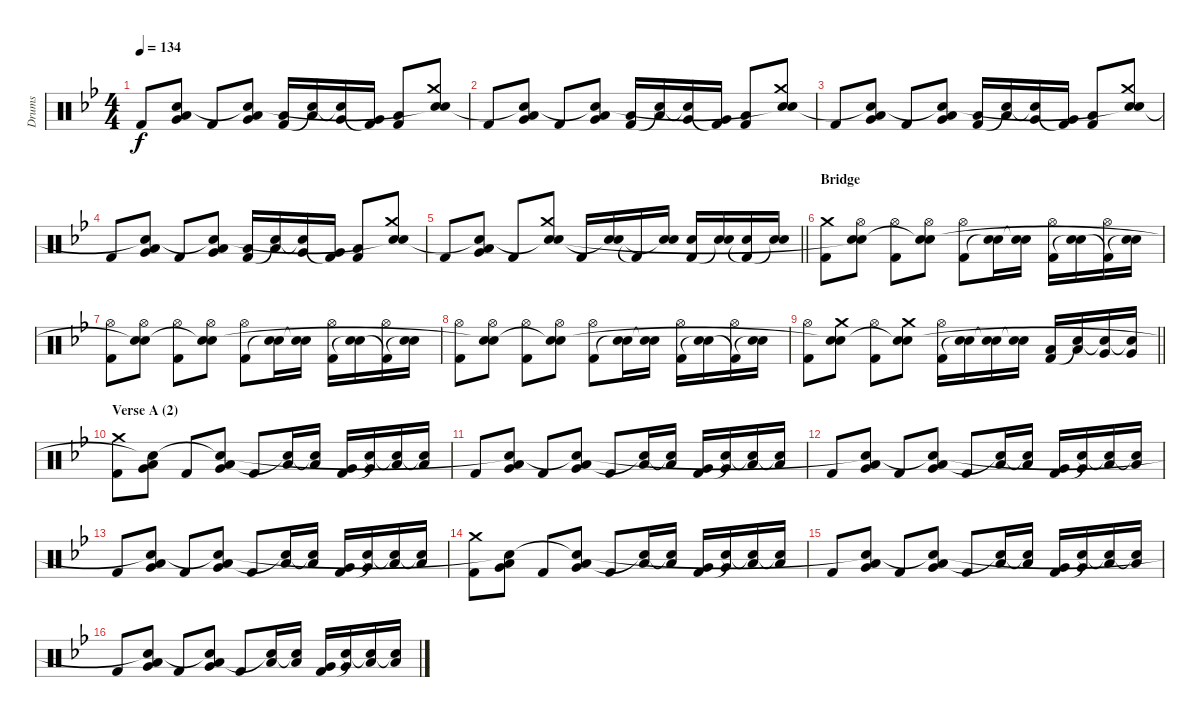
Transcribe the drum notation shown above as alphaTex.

\track ("Drums" "Drums") {instrument percussion}
\staff {score}
\articulation defaults
\ts (4 4)
\tempo 134
\clef neutral
\ks gminor "Kick (hit) 2".8{dy f}
("Very Low Tom (hit)" "Low Floor Tom (hit)" "Snare (hit)"{t}).8 "Kick (hit) 2".8 ("Very Low Tom (hit)" "Low Floor Tom (hit)" "Snare (hit)"{t}).8 ("Low Tom (hit)" "Kick (hit) 2").16 ("Low Tom (hit)" "Snare (hit)"{t}).16 ("Very Low Tom (hit)" "Snare (hit)"{t}).16 ("Very Low Tom (hit)" "Kick (hit) 2"{t}).16 ("Low Floor Tom (hit)" "Kick (hit) 2").8 ("Crash medium (hit)" "Electric Snare (hit)" "Snare (hit)"{t}).8 |
"Kick (hit) 2".8 ("Very Low Tom (hit)" "Low Floor Tom (hit)" "Snare (hit)"{t}).8 "Kick (hit) 2".8 ("Very Low Tom (hit)" "Low Floor Tom (hit)" "Snare (hit)"{t}).8 ("Low Tom (hit)" "Kick (hit) 2").16 ("Low Tom (hit)" "Snare (hit)"{t}).16 ("Very Low Tom (hit)" "Snare (hit)"{t}).16 ("Very Low Tom (hit)" "Kick (hit) 2"{t}).16 ("Low Floor Tom (hit)" "Kick (hit) 2").8 ("Crash medium (hit)" "Electric Snare (hit)" "Snare (hit)"{t}).8 |
"Kick (hit) 2".8 ("Very Low Tom (hit)" "Low Floor Tom (hit)" "Snare (hit)"{t}).8 "Kick (hit) 2".8 ("Very Low Tom (hit)" "Low Floor Tom (hit)" "Snare (hit)"{t}).8 ("Low Tom (hit)" "Kick (hit) 2").16 ("Low Tom (hit)" "Snare (hit)"{t}).16 ("Very Low Tom (hit)" "Snare (hit)"{t}).16 ("Very Low Tom (hit)" "Kick (hit) 2"{t}).16 ("Low Floor Tom (hit)" "Kick (hit) 2").8 ("Crash medium (hit)" "Electric Snare (hit)" "Snare (hit)"{t}).8 |
"Kick (hit) 2".8 ("Very Low Tom (hit)" "Low Floor Tom (hit)" "Snare (hit)"{t}).8 "Kick (hit) 2".8 ("Very Low Tom (hit)" "Low Floor Tom (hit)" "Snare (hit)"{t}).8 ("Low Tom (hit)" "Kick (hit) 2").16 ("Low Tom (hit)" "Snare (hit)"{t}).16 ("Very Low Tom (hit)" "Snare (hit)"{t}).16 ("Very Low Tom (hit)" "Kick (hit) 2"{t}).16 ("Low Floor Tom (hit)" "Kick (hit) 2").8 ("Crash medium (hit)" "Electric Snare (hit)" "Snare (hit)"{t}).8 |
\barLineRight lightlight "Kick (hit) 2".8
("Very Low Tom (hit)" "Low Floor Tom (hit)" "Snare (hit)"{t}).8 "Kick (hit) 2".8 ("Crash medium (hit)" "Electric Snare (hit)" "Snare (hit)"{t}).8 "Kick (hit) 2".16 ("Electric Snare (hit)" "Snare (hit)"{t}).16 "Kick (hit) 2"{t}.16 ("Electric Snare (hit)" "Snare (hit)"{t}).16 ("Electric Snare (hit)" "Kick (hit) 2").16 ("Electric Snare (hit)" "Snare (hit)"{t}).16 ("Electric Snare (hit)" "Kick (hit) 2"{t}).16 ("Electric Snare (hit)" "Snare (hit)"{t}).16 |
\section ("" "Bridge")
("Crash medium (hit)" "Kick (hit) 2").8 ("Hi-Hat (open)" "Electric Snare (hit)" "Snare (hit)"{t}).8 ("Hi-Hat (open)" "Kick (hit) 2").8 ("Hi-Hat (open)" "Electric Snare (hit)" "Snare (hit)"{t}).8 ("Hi-Hat (open)" "Kick (hit) 2").8 ("Electric Snare (hit)" "Snare (hit)"{t}).16 ("Electric Snare (hit)" "Snare (hit)"{t}).16 ("Hi-Hat (open)" "Kick (hit) 2").16 ("Electric Snare (hit)" "Snare (hit)"{t}).16 ("Hi-Hat (open)" "Kick (hit) 2"{t}).16 ("Electric Snare (hit)" "Snare (hit)"{t}).16 |
("Hi-Hat (open)" "Kick (hit) 2").8 ("Hi-Hat (open)" "Electric Snare (hit)" "Snare (hit)"{t}).8 ("Hi-Hat (open)" "Kick (hit) 2").8 ("Hi-Hat (open)" "Electric Snare (hit)" "Snare (hit)"{t}).8 ("Hi-Hat (open)" "Kick (hit) 2").8 ("Electric Snare (hit)" "Snare (hit)"{t}).16 ("Electric Snare (hit)" "Snare (hit)"{t}).16 ("Hi-Hat (open)" "Kick (hit) 2").16 ("Electric Snare (hit)" "Snare (hit)"{t}).16 ("Hi-Hat (open)" "Kick (hit) 2"{t}).16 ("Electric Snare (hit)" "Snare (hit)"{t}).16 |
("Hi-Hat (open)" "Kick (hit) 2").8 ("Hi-Hat (open)" "Electric Snare (hit)" "Snare (hit)"{t}).8 ("Hi-Hat (open)" "Kick (hit) 2").8 ("Hi-Hat (open)" "Electric Snare (hit)" "Snare (hit)"{t}).8 ("Hi-Hat (open)" "Kick (hit) 2").8 ("Electric Snare (hit)" "Snare (hit)"{t}).16 ("Electric Snare (hit)" "Snare (hit)"{t}).16 ("Hi-Hat (open)" "Kick (hit) 2").16 ("Electric Snare (hit)" "Snare (hit)"{t}).16 ("Hi-Hat (open)" "Kick (hit) 2"{t}).16 ("Electric Snare (hit)" "Snare (hit)"{t}).16 |
\barLineRight lightlight
("Hi-Hat (open)" "Kick (hit) 2").8 ("Crash medium (hit)" "Electric Snare (hit)" "Snare (hit)"{t}).8 ("Hi-Hat (open)" "Kick (hit) 2").8 ("Crash medium (hit)" "Electric Snare (hit)" "Snare (hit)"{t}).8 ("Hi-Hat (open)" "Kick (hit) 2").16 ("Electric Snare (hit)" "Snare (hit)"{t}).16 ("Electric Snare (hit)" "Snare (hit)"{t}).16 ("Electric Snare (hit)" "Snare (hit)"{t}).16 ("Low Tom (hit)" "Kick (hit) 2").16 ("Low Tom (hit)" "Snare (hit)"{t}).16 ("Very Low Tom (hit)" "Snare (hit)"{t}).16 ("Very Low Tom (hit)" "Snare (hit)"{t}).16 |
\section ("" "Verse A (2)")
("Crash medium (hit)" "Kick (hit) 2").8 ("Very Low Tom (hit)" "Low Floor Tom (hit)" "Snare (hit)"{t}).8 "Kick (hit) 2".8 ("Very Low Tom (hit)" "Low Floor Tom (hit)" "Snare (hit)"{t}).8 "Kick (hit) 2".8 ("Low Tom (hit)" "Snare (hit)"{t}).16 ("Low Tom (hit)" "Snare (hit)"{t}).16 ("Very Low Tom (hit)" "Kick (hit) 2").16 ("Very Low Tom (hit)" "Snare (hit)"{t}).16 ("Low Floor Tom (hit)" "Snare (hit)"{t}).16 ("Low Floor Tom (hit)" "Snare (hit)"{t}).16 |
"Kick (hit) 2".8 ("Very Low Tom (hit)" "Low Floor Tom (hit)" "Snare (hit)"{t}).8 "Kick (hit) 2".8 ("Very Low Tom (hit)" "Low Floor Tom (hit)" "Snare (hit)"{t}).8 "Kick (hit) 2".8 ("Low Tom (hit)" "Snare (hit)"{t}).16 ("Low Tom (hit)" "Snare (hit)"{t}).16 ("Very Low Tom (hit)" "Kick (hit) 2").16 ("Very Low Tom (hit)" "Snare (hit)"{t}).16 ("Low Floor Tom (hit)" "Snare (hit)"{t}).16 ("Low Floor Tom (hit)" "Snare (hit)"{t}).16 |
"Kick (hit) 2".8 ("Very Low Tom (hit)" "Low Floor Tom (hit)" "Snare (hit)"{t}).8 "Kick (hit) 2".8 ("Very Low Tom (hit)" "Low Floor Tom (hit)" "Snare (hit)"{t}).8 "Kick (hit) 2".8 ("Low Tom (hit)" "Snare (hit)"{t}).16 ("Low Tom (hit)" "Snare (hit)"{t}).16 ("Very Low Tom (hit)" "Kick (hit) 2").16 ("Very Low Tom (hit)" "Snare (hit)"{t}).16 ("Low Floor Tom (hit)" "Snare (hit)"{t}).16 ("Low Floor Tom (hit)" "Snare (hit)"{t}).16 |
"Kick (hit) 2".8 ("Very Low Tom (hit)" "Low Floor Tom (hit)" "Snare (hit)"{t}).8 "Kick (hit) 2".8 ("Very Low Tom (hit)" "Low Floor Tom (hit)" "Snare (hit)"{t}).8 "Kick (hit) 2".8 ("Low Tom (hit)" "Snare (hit)"{t}).16 ("Low Tom (hit)" "Snare (hit)"{t}).16 ("Very Low Tom (hit)" "Kick (hit) 2").16 ("Very Low Tom (hit)" "Snare (hit)"{t}).16 ("Low Floor Tom (hit)" "Snare (hit)"{t}).16 ("Low Floor Tom (hit)" "Snare (hit)"{t}).16 |
("Crash medium (hit)" "Kick (hit) 2").8 ("Very Low Tom (hit)" "Low Floor Tom (hit)" "Snare (hit)"{t}).8 "Kick (hit) 2".8 ("Very Low Tom (hit)" "Low Floor Tom (hit)" "Snare (hit)"{t}).8 "Kick (hit) 2".8 ("Low Tom (hit)" "Snare (hit)"{t}).16 ("Low Tom (hit)" "Snare (hit)"{t}).16 ("Very Low Tom (hit)" "Kick (hit) 2").16 ("Very Low Tom (hit)" "Snare (hit)"{t}).16 ("Low Floor Tom (hit)" "Snare (hit)"{t}).16 ("Low Floor Tom (hit)" "Snare (hit)"{t}).16 |
"Kick (hit) 2".8 ("Very Low Tom (hit)" "Low Floor Tom (hit)" "Snare (hit)"{t}).8 "Kick (hit) 2".8 ("Very Low Tom (hit)" "Low Floor Tom (hit)" "Snare (hit)"{t}).8 "Kick (hit) 2".8 ("Low Tom (hit)" "Snare (hit)"{t}).16 ("Low Tom (hit)" "Snare (hit)"{t}).16 ("Very Low Tom (hit)" "Kick (hit) 2").16 ("Very Low Tom (hit)" "Snare (hit)"{t}).16 ("Low Floor Tom (hit)" "Snare (hit)"{t}).16 ("Low Floor Tom (hit)" "Snare (hit)"{t}).16 |
"Kick (hit) 2".8 ("Very Low Tom (hit)" "Low Floor Tom (hit)" "Snare (hit)"{t}).8 "Kick (hit) 2".8 ("Very Low Tom (hit)" "Low Floor Tom (hit)" "Snare (hit)"{t}).8 "Kick (hit) 2".8 ("Low Tom (hit)" "Snare (hit)"{t}).16 ("Low Tom (hit)" "Snare (hit)"{t}).16 ("Very Low Tom (hit)" "Kick (hit) 2").16 ("Very Low Tom (hit)" "Snare (hit)"{t}).16 ("Low Floor Tom (hit)" "Snare (hit)"{t}).16 ("Low Floor Tom (hit)" "Snare (hit)"{t}).16
